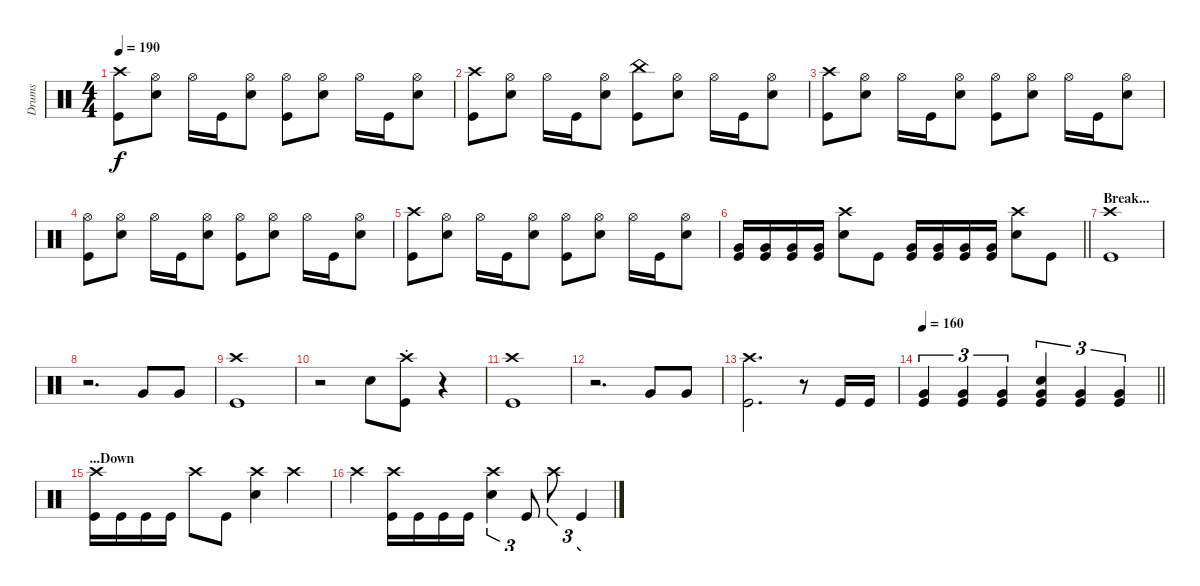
\track ("Drums" "Drums") {instrument percussion}
\staff {score}
\articulation defaults
\ts (4 4)
\tempo 190
\clef neutral
\ks c
("Kick (hit)" "Crash high (hit)").8{dy f} ("Snare (hit) 2" "Hi-Hat (open)").8 "Hi-Hat (open)".16 "Kick (hit)".16 ("Snare (hit) 2" "Hi-Hat (open)").8 ("Kick (hit)" "Hi-Hat (open)").8 ("Snare (hit) 2" "Hi-Hat (open)").8 "Hi-Hat (open)".16 "Kick (hit)".16 ("Snare (hit) 2" "Hi-Hat (open)").8 |
("Kick (hit)" "Crash high (hit)").8 ("Snare (hit) 2" "Hi-Hat (open)").8 "Hi-Hat (open)".16 "Kick (hit)".16 ("Snare (hit) 2" "Hi-Hat (open)").8 ("Kick (hit)" "China (hit)").8 ("Snare (hit) 2" "Hi-Hat (open)").8 "Hi-Hat (open)".16 "Kick (hit)".16 ("Snare (hit) 2" "Hi-Hat (open)").8 |
("Kick (hit)" "Crash high (hit)").8 ("Snare (hit) 2" "Hi-Hat (open)").8 "Hi-Hat (open)".16 "Kick (hit)".16 ("Snare (hit) 2" "Hi-Hat (open)").8 ("Kick (hit)" "Hi-Hat (open)").8 ("Snare (hit) 2" "Hi-Hat (open)").8 "Hi-Hat (open)".16 "Kick (hit)".16 ("Snare (hit) 2" "Hi-Hat (open)").8 |
("Kick (hit)" "Hi-Hat (open)").8 ("Snare (hit) 2" "Hi-Hat (open)").8 "Hi-Hat (open)".16 "Kick (hit)".16 ("Snare (hit) 2" "Hi-Hat (open)").8 ("Kick (hit)" "Hi-Hat (open)").8 ("Snare (hit) 2" "Hi-Hat (open)").8 "Hi-Hat (open)".16 "Kick (hit)".16 ("Snare (hit) 2" "Hi-Hat (open)").8 |
("Kick (hit)" "Crash high (hit)").8 ("Snare (hit) 2" "Hi-Hat (open)").8 "Hi-Hat (open)".16 "Kick (hit)".16 ("Snare (hit) 2" "Hi-Hat (open)").8 ("Kick (hit)" "Hi-Hat (open)").8 ("Snare (hit) 2" "Hi-Hat (open)").8 "Hi-Hat (open)".16 "Kick (hit)".16 ("Snare (hit) 2" "Hi-Hat (open)").8 |
\barLineRight lightlight
("Very Low Tom (hit)" "Kick (hit)").16 ("Very Low Tom (hit)" "Kick (hit)").16 ("Very Low Tom (hit)" "Kick (hit)").16 ("Very Low Tom (hit)" "Kick (hit)").16 ("Snare (hit) 2" "Crash high (hit)").8 "Kick (hit)".8 ("Very Low Tom (hit)" "Kick (hit)").16 ("Very Low Tom (hit)" "Kick (hit)").16 ("Very Low Tom (hit)" "Kick (hit)").16 ("Very Low Tom (hit)" "Kick (hit)").16 ("Snare (hit) 2" "Crash high (hit)").8 "Kick (hit)".8 |
\section ("" "Break...")
("Kick (hit)" "Crash high (hit)").1 |
r.2{d} "Very Low Tom (hit)".8 "Very Low Tom (hit)".8 |
("Kick (hit)" "Crash high (hit)").1 |
r.2 "Snare (hit) 2".8 ("Kick (hit)" "Crash high (hit)"{st}).8 r.4 |
("Kick (hit)" "Crash high (hit)").1 |
r.2{d} "Very Low Tom (hit)".8 "Very Low Tom (hit)".8 |
("Kick (hit)" "Crash high (hit)").2{d} r.8 "Kick (hit)".16 "Kick (hit)".16 |
\tempo 160
\barLineRight lightlight
("Kick (hit)" "Very Low Tom (hit)").4{tu (3 2)} ("Kick (hit)" "Very Low Tom (hit)").4{tu (3 2)} ("Kick (hit)" "Very Low Tom (hit)").4{tu (3 2)} ("Kick (hit)" "Very Low Tom (hit)" "Snare (hit) 2").4{tu (3 2)} ("Kick (hit)" "Very Low Tom (hit)").4{tu (3 2)} ("Kick (hit)" "Very Low Tom (hit)").4{tu (3 2)} |
\section ("" "...Down")
("Kick (hit)" "Crash high (hit)").16 "Kick (hit)".16 "Kick (hit)".16 "Kick (hit)".16 "Crash high (hit)".8 "Kick (hit)".8 ("Snare (hit) 2" "Crash high (hit)").4 "Crash high (hit)".4 |
"Crash high (hit)".4 ("Kick (hit)" "Crash high (hit)").16 "Kick (hit)".16 "Kick (hit)".16 "Kick (hit)".16 ("Snare (hit) 2" "Crash high (hit)").4{tu (3 2)} "Kick (hit)".8{tu (3 2)} "Crash high (hit)".8{tu (3 2)} "Kick (hit)".4{tu (3 2)}
